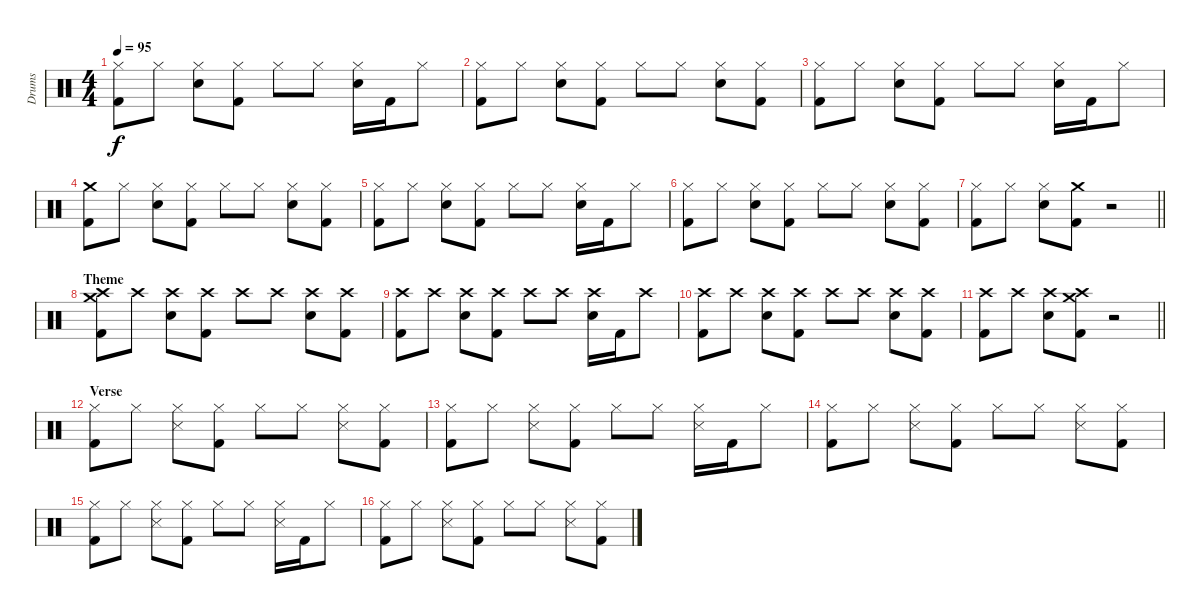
\track ("Drums" "Drums") {instrument percussion}
\staff {score}
\articulation defaults
\ts (4 4)
\tempo 95
\clef neutral
\ks c
("Hi-Hat (closed)" "Kick (hit) 2").8{dy f} "Hi-Hat (closed)".8 ("Hi-Hat (closed)" "Snare (hit) 2").8 ("Hi-Hat (closed)" "Kick (hit) 2").8 "Hi-Hat (closed)".8 "Hi-Hat (closed)".8 ("Hi-Hat (closed)" "Snare (hit) 2").16 "Kick (hit) 2".16 "Hi-Hat (closed)".8 |
("Hi-Hat (closed)" "Kick (hit) 2").8 "Hi-Hat (closed)".8 ("Hi-Hat (closed)" "Snare (hit) 2").8 ("Hi-Hat (closed)" "Kick (hit) 2").8 "Hi-Hat (closed)".8 "Hi-Hat (closed)".8 ("Hi-Hat (closed)" "Snare (hit) 2").8 ("Hi-Hat (closed)" "Kick (hit) 2").8 |
("Hi-Hat (closed)" "Kick (hit) 2").8 "Hi-Hat (closed)".8 ("Hi-Hat (closed)" "Snare (hit) 2").8 ("Hi-Hat (closed)" "Kick (hit) 2").8 "Hi-Hat (closed)".8 "Hi-Hat (closed)".8 ("Hi-Hat (closed)" "Snare (hit) 2").16 "Kick (hit) 2".16 "Hi-Hat (closed)".8 |
("Crash medium (hit)" "Kick (hit) 2").8 "Hi-Hat (closed)".8 ("Hi-Hat (closed)" "Snare (hit) 2").8 ("Hi-Hat (closed)" "Kick (hit) 2").8 "Hi-Hat (closed)".8 "Hi-Hat (closed)".8 ("Hi-Hat (closed)" "Snare (hit) 2").8 ("Hi-Hat (closed)" "Kick (hit) 2").8 |
("Hi-Hat (closed)" "Kick (hit) 2").8 "Hi-Hat (closed)".8 ("Hi-Hat (closed)" "Snare (hit) 2").8 ("Hi-Hat (closed)" "Kick (hit) 2").8 "Hi-Hat (closed)".8 "Hi-Hat (closed)".8 ("Hi-Hat (closed)" "Snare (hit) 2").16 "Kick (hit) 2".16 "Hi-Hat (closed)".8 |
("Hi-Hat (closed)" "Kick (hit) 2").8 "Hi-Hat (closed)".8 ("Hi-Hat (closed)" "Snare (hit) 2").8 ("Hi-Hat (closed)" "Kick (hit) 2").8 "Hi-Hat (closed)".8 "Hi-Hat (closed)".8 ("Hi-Hat (closed)" "Snare (hit) 2").8 ("Hi-Hat (closed)" "Kick (hit) 2").8 |
\barLineRight lightlight
("Hi-Hat (closed)" "Kick (hit) 2").8 "Hi-Hat (closed)".8 ("Hi-Hat (closed)" "Snare (hit) 2").8 ("Crash medium (hit)" "Kick (hit) 2").8 r.2 |
\section ("" "Theme")
("Crash high (hit)" "Crash medium (hit)" "Kick (hit) 2").8 "Crash high (hit)".8 ("Crash high (hit)" "Snare (hit) 2").8 ("Crash high (hit)" "Kick (hit) 2").8 "Crash high (hit)".8 "Crash high (hit)".8 ("Crash high (hit)" "Snare (hit) 2").8 ("Crash high (hit)" "Kick (hit) 2").8 |
("Crash high (hit)" "Kick (hit) 2").8 "Crash high (hit)".8 ("Crash high (hit)" "Snare (hit) 2").8 ("Crash high (hit)" "Kick (hit) 2").8 "Crash high (hit)".8 "Crash high (hit)".8 ("Crash high (hit)" "Snare (hit) 2").16 "Kick (hit) 2".16 "Crash high (hit)".8 |
("Crash high (hit)" "Kick (hit) 2").8 "Crash high (hit)".8 ("Crash high (hit)" "Snare (hit) 2").8 ("Crash high (hit)" "Kick (hit) 2").8 "Crash high (hit)".8 "Crash high (hit)".8 ("Crash high (hit)" "Snare (hit) 2").8 ("Crash high (hit)" "Kick (hit) 2").8 |
\barLineRight lightlight
("Crash high (hit)" "Kick (hit) 2").8 "Crash high (hit)".8 ("Crash high (hit)" "Snare (hit) 2").8 ("Crash high (hit)" "Crash medium (hit)" "Kick (hit) 2").8 r.2 |
\section ("" "Verse")
("Hi-Hat (closed)" "Kick (hit) 2").8 "Hi-Hat (closed)".8 ("Hi-Hat (closed)" "Snare (side stick) 3").8 ("Hi-Hat (closed)" "Kick (hit) 2").8 "Hi-Hat (closed)".8 "Hi-Hat (closed)".8 ("Hi-Hat (closed)" "Snare (side stick) 3").8 ("Hi-Hat (closed)" "Kick (hit) 2").8 |
("Hi-Hat (closed)" "Kick (hit) 2").8 "Hi-Hat (closed)".8 ("Hi-Hat (closed)" "Snare (side stick) 3").8 ("Hi-Hat (closed)" "Kick (hit) 2").8 "Hi-Hat (closed)".8 "Hi-Hat (closed)".8 ("Hi-Hat (closed)" "Snare (side stick) 3").16 "Kick (hit) 2".16 "Hi-Hat (closed)".8 |
("Hi-Hat (closed)" "Kick (hit) 2").8 "Hi-Hat (closed)".8 ("Hi-Hat (closed)" "Snare (side stick) 3").8 ("Hi-Hat (closed)" "Kick (hit) 2").8 "Hi-Hat (closed)".8 "Hi-Hat (closed)".8 ("Hi-Hat (closed)" "Snare (side stick) 3").8 ("Hi-Hat (closed)" "Kick (hit) 2").8 |
("Hi-Hat (closed)" "Kick (hit) 2").8 "Hi-Hat (closed)".8 ("Hi-Hat (closed)" "Snare (side stick) 3").8 ("Hi-Hat (closed)" "Kick (hit) 2").8 "Hi-Hat (closed)".8 "Hi-Hat (closed)".8 ("Hi-Hat (closed)" "Snare (side stick) 3").16 "Kick (hit) 2".16 "Hi-Hat (closed)".8 |
("Hi-Hat (closed)" "Kick (hit) 2").8 "Hi-Hat (closed)".8 ("Hi-Hat (closed)" "Snare (side stick) 3").8 ("Hi-Hat (closed)" "Kick (hit) 2").8 "Hi-Hat (closed)".8 "Hi-Hat (closed)".8 ("Hi-Hat (closed)" "Snare (side stick) 3").8 ("Hi-Hat (closed)" "Kick (hit) 2").8
